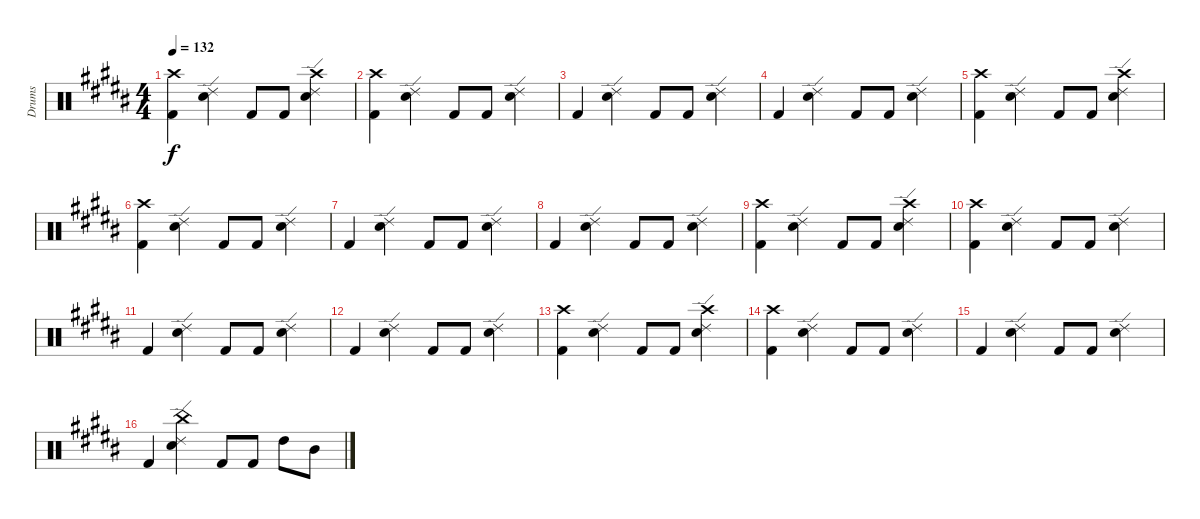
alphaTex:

\track ("Drums" "Drums") {instrument percussion}
\staff {score}
\articulation defaults
\ts (4 4)
\tempo 132
\clef neutral
\ks g#minor
("Kick (hit) 2" "Crash high (hit)").4{dy f} ("Electric Snare (hit)" "Ride (edge) 2").4 "Kick (hit) 2".8 "Kick (hit) 2".8 ("Crash high (hit)" "Electric Snare (hit)" "Ride (edge) 2").4 |
("Kick (hit) 2" "Crash high (hit)").4 ("Electric Snare (hit)" "Ride (edge) 2").4 "Kick (hit) 2".8 "Kick (hit) 2".8 ("Electric Snare (hit)" "Ride (edge) 2").4 |
"Kick (hit) 2".4 ("Electric Snare (hit)" "Ride (edge) 2").4 "Kick (hit) 2".8 "Kick (hit) 2".8 ("Electric Snare (hit)" "Ride (edge) 2").4 |
"Kick (hit) 2".4 ("Electric Snare (hit)" "Ride (edge) 2").4 "Kick (hit) 2".8 "Kick (hit) 2".8 ("Electric Snare (hit)" "Ride (edge) 2").4 |
("Kick (hit) 2" "Crash high (hit)").4 ("Electric Snare (hit)" "Ride (edge) 2").4 "Kick (hit) 2".8 "Kick (hit) 2".8 ("Crash high (hit)" "Electric Snare (hit)" "Ride (edge) 2").4 |
("Kick (hit) 2" "Crash high (hit)").4 ("Electric Snare (hit)" "Ride (edge) 2").4 "Kick (hit) 2".8 "Kick (hit) 2".8 ("Electric Snare (hit)" "Ride (edge) 2").4 |
"Kick (hit) 2".4 ("Electric Snare (hit)" "Ride (edge) 2").4 "Kick (hit) 2".8 "Kick (hit) 2".8 ("Electric Snare (hit)" "Ride (edge) 2").4 |
"Kick (hit) 2".4 ("Electric Snare (hit)" "Ride (edge) 2").4 "Kick (hit) 2".8 "Kick (hit) 2".8 ("Electric Snare (hit)" "Ride (edge) 2").4 |
("Kick (hit) 2" "Crash high (hit)").4 ("Electric Snare (hit)" "Ride (edge) 2").4 "Kick (hit) 2".8 "Kick (hit) 2".8 ("Crash high (hit)" "Electric Snare (hit)" "Ride (edge) 2").4 |
("Kick (hit) 2" "Crash high (hit)").4 ("Electric Snare (hit)" "Ride (edge) 2").4 "Kick (hit) 2".8 "Kick (hit) 2".8 ("Electric Snare (hit)" "Ride (edge) 2").4 |
"Kick (hit) 2".4 ("Electric Snare (hit)" "Ride (edge) 2").4 "Kick (hit) 2".8 "Kick (hit) 2".8 ("Electric Snare (hit)" "Ride (edge) 2").4 |
"Kick (hit) 2".4 ("Electric Snare (hit)" "Ride (edge) 2").4 "Kick (hit) 2".8 "Kick (hit) 2".8 ("Electric Snare (hit)" "Ride (edge) 2").4 |
("Kick (hit) 2" "Crash high (hit)").4 ("Electric Snare (hit)" "Ride (edge) 2").4 "Kick (hit) 2".8 "Kick (hit) 2".8 ("Crash high (hit)" "Electric Snare (hit)" "Ride (edge) 2").4 |
("Kick (hit) 2" "Crash high (hit)").4 ("Electric Snare (hit)" "Ride (edge) 2").4 "Kick (hit) 2".8 "Kick (hit) 2".8 ("Electric Snare (hit)" "Ride (edge) 2").4 |
"Kick (hit) 2".4 ("Electric Snare (hit)" "Ride (edge) 2").4 "Kick (hit) 2".8 "Kick (hit) 2".8 ("Electric Snare (hit)" "Ride (edge) 2").4 |
"Kick (hit) 2".4 ("China (hit)" "Electric Snare (hit)" "Ride (edge) 2").4 "Kick (hit) 2".8 "Kick (hit) 2".8 "High Tom (hit)".8 "Mid Tom (hit)".8
